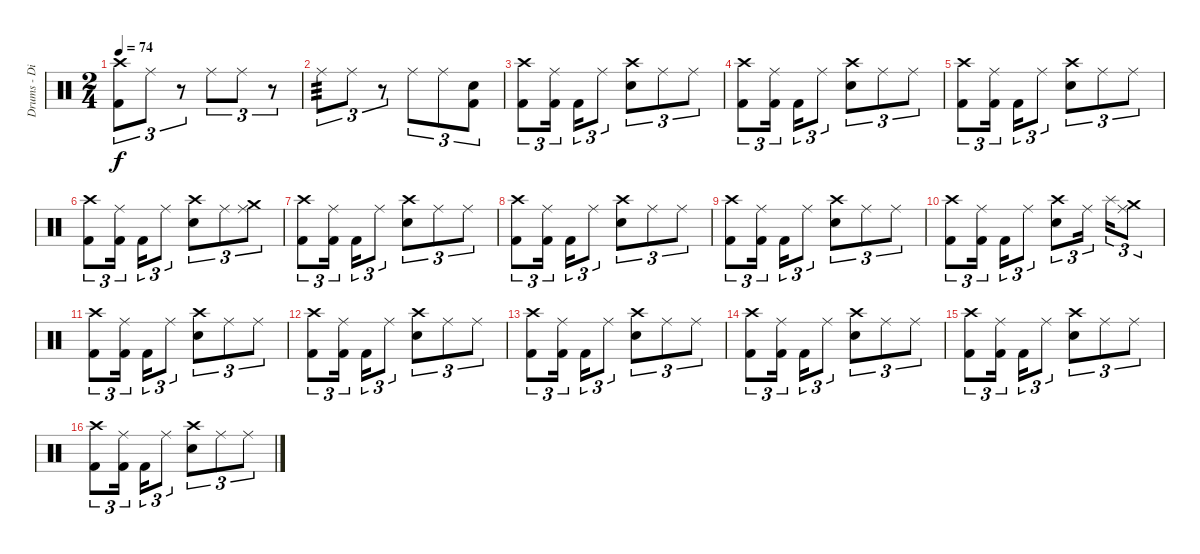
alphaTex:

\track ("Drums - Dino Campanella" "Drums - Di") {instrument percussion}
\staff {score}
\articulation defaults
\ts (2 4)
\tempo 74
\clef neutral
\ks c
("Crash high (hit)" "Kick (hit) 2").8{tu (3 2) dy f} "Ride (middle)".8{tu (3 2)} r.8{tu (3 2)} "Ride (middle)".8{tu (3 2)} "Ride (middle)".8{tu (3 2)} r.8{tu (3 2)} |
"Ride (middle)".8{tu (3 2) tp 3} "Ride (middle)".8{tu (3 2)} r.8{tu (3 2)} "Ride (middle)".8{tu (3 2)} "Ride (middle)".8{tu (3 2)} ("Kick (hit) 2" "Snare (hit) 2").8{tu (3 2)} |
("Crash high (hit)" "Kick (hit) 2").8{tu (3 2)} ("Ride (middle)" "Kick (hit) 2").16{tu (3 2)} "Kick (hit) 2".16{tu (3 2)} "Ride (middle)".8{tu (3 2)} ("Crash high (hit)" "Snare (hit) 2").8{tu (3 2)} "Ride (middle)".8{tu (3 2)} "Ride (middle)".8{tu (3 2)} |
("Crash high (hit)" "Kick (hit) 2").8{tu (3 2)} ("Ride (middle)" "Kick (hit) 2").16{tu (3 2)} "Kick (hit) 2".16{tu (3 2)} "Ride (middle)".8{tu (3 2)} ("Crash high (hit)" "Snare (hit) 2").8{tu (3 2)} "Ride (middle)".8{tu (3 2)} "Ride (middle)".8{tu (3 2)} |
("Crash high (hit)" "Kick (hit) 2").8{tu (3 2)} ("Ride (middle)" "Kick (hit) 2").16{tu (3 2)} "Kick (hit) 2".16{tu (3 2)} "Ride (middle)".8{tu (3 2)} ("Crash high (hit)" "Snare (hit) 2").8{tu (3 2)} "Ride (middle)".8{tu (3 2)} "Ride (middle)".8{tu (3 2)} |
("Crash high (hit)" "Kick (hit) 2").8{tu (3 2)} ("Ride (middle)" "Kick (hit) 2").16{tu (3 2)} "Kick (hit) 2".16{tu (3 2)} "Ride (middle)".8{tu (3 2)} ("Crash high (hit)" "Snare (hit) 2").8{tu (3 2)} "Ride (middle)".8{tu (3 2)} ("Crash medium (hit)" "Ride (middle)").8{tu (3 2)} |
("Crash high (hit)" "Kick (hit) 2").8{tu (3 2)} ("Ride (middle)" "Kick (hit) 2").16{tu (3 2)} "Kick (hit) 2".16{tu (3 2)} "Ride (middle)".8{tu (3 2)} ("Crash high (hit)" "Snare (hit) 2").8{tu (3 2)} "Ride (middle)".8{tu (3 2)} "Ride (middle)".8{tu (3 2)} |
("Crash high (hit)" "Kick (hit) 2").8{tu (3 2)} ("Ride (middle)" "Kick (hit) 2").16{tu (3 2)} "Kick (hit) 2".16{tu (3 2)} "Ride (middle)".8{tu (3 2)} ("Crash high (hit)" "Snare (hit) 2").8{tu (3 2)} "Ride (middle)".8{tu (3 2)} "Ride (middle)".8{tu (3 2)} |
("Crash high (hit)" "Kick (hit) 2").8{tu (3 2)} ("Ride (middle)" "Kick (hit) 2").16{tu (3 2)} "Kick (hit) 2".16{tu (3 2)} "Ride (middle)".8{tu (3 2)} ("Crash high (hit)" "Snare (hit) 2").8{tu (3 2)} "Ride (middle)".8{tu (3 2)} "Ride (middle)".8{tu (3 2)} |
("Crash high (hit)" "Kick (hit) 2").8{tu (3 2)} ("Ride (middle)" "Kick (hit) 2").16{tu (3 2)} "Kick (hit) 2".16{tu (3 2)} "Ride (middle)".8{tu (3 2)} ("Crash high (hit)" "Snare (hit) 2").8{tu (3 2)} "Ride (middle)".16{tu (3 2)} "Splash (hit)".16{tu (3 2)} ("Ride (middle)" "Crash medium (hit)").8{tu (3 2)} |
("Crash high (hit)" "Kick (hit) 2").8{tu (3 2)} ("Ride (middle)" "Kick (hit) 2").16{tu (3 2)} "Kick (hit) 2".16{tu (3 2)} "Ride (middle)".8{tu (3 2)} ("Crash high (hit)" "Snare (hit) 2").8{tu (3 2)} "Ride (middle)".8{tu (3 2)} "Ride (middle)".8{tu (3 2)} |
("Crash high (hit)" "Kick (hit) 2").8{tu (3 2)} ("Ride (middle)" "Kick (hit) 2").16{tu (3 2)} "Kick (hit) 2".16{tu (3 2)} "Ride (middle)".8{tu (3 2)} ("Crash high (hit)" "Snare (hit) 2").8{tu (3 2)} "Ride (middle)".8{tu (3 2)} "Ride (middle)".8{tu (3 2)} |
("Crash high (hit)" "Kick (hit) 2").8{tu (3 2)} ("Ride (middle)" "Kick (hit) 2").16{tu (3 2)} "Kick (hit) 2".16{tu (3 2)} "Ride (middle)".8{tu (3 2)} ("Crash high (hit)" "Snare (hit) 2").8{tu (3 2)} "Ride (middle)".8{tu (3 2)} "Ride (middle)".8{tu (3 2)} |
("Crash high (hit)" "Kick (hit) 2").8{tu (3 2)} ("Ride (middle)" "Kick (hit) 2").16{tu (3 2)} "Kick (hit) 2".16{tu (3 2)} "Ride (middle)".8{tu (3 2)} ("Crash high (hit)" "Snare (hit) 2").8{tu (3 2)} "Ride (middle)".8{tu (3 2)} "Ride (middle)".8{tu (3 2)} |
("Crash high (hit)" "Kick (hit) 2").8{tu (3 2)} ("Ride (middle)" "Kick (hit) 2").16{tu (3 2)} "Kick (hit) 2".16{tu (3 2)} "Ride (middle)".8{tu (3 2)} ("Crash high (hit)" "Snare (hit) 2").8{tu (3 2)} "Ride (middle)".8{tu (3 2)} "Ride (middle)".8{tu (3 2)} |
("Crash high (hit)" "Kick (hit) 2").8{tu (3 2)} ("Ride (middle)" "Kick (hit) 2").16{tu (3 2)} "Kick (hit) 2".16{tu (3 2)} "Ride (middle)".8{tu (3 2)} ("Crash high (hit)" "Snare (hit) 2").8{tu (3 2)} "Ride (middle)".8{tu (3 2)} "Ride (middle)".8{tu (3 2)}
